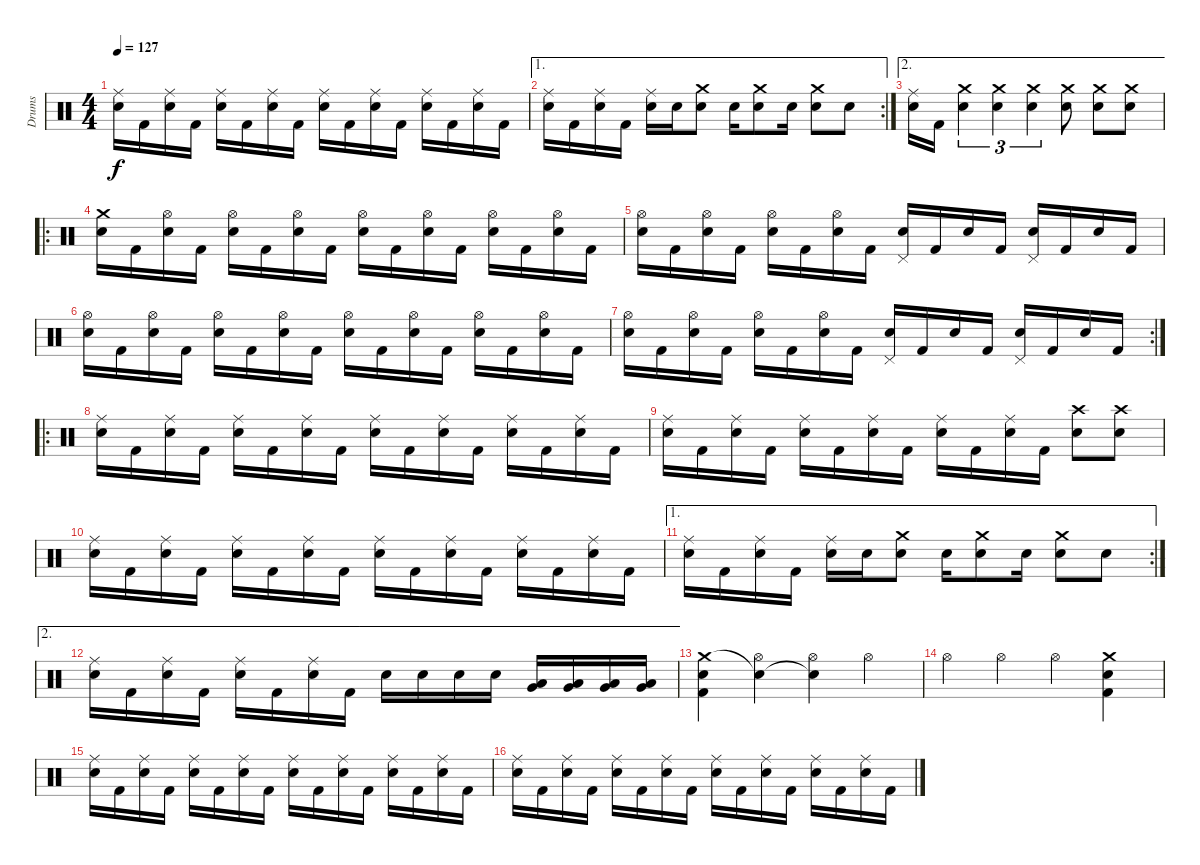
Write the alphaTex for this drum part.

\track ("Drums" "Drums") {instrument percussion}
\staff {score}
\articulation defaults
\ts (4 4)
\tempo 127
\clef neutral
\ks c
("Ride (middle)" "Snare (hit) 2").16{dy f} "Kick (hit) 2".16 ("Ride (middle)" "Snare (hit) 2").16 "Kick (hit) 2".16 ("Ride (middle)" "Snare (hit) 2").16 "Kick (hit) 2".16 ("Ride (middle)" "Snare (hit) 2").16 "Kick (hit) 2".16 ("Ride (middle)" "Snare (hit) 2").16 "Kick (hit) 2".16 ("Ride (middle)" "Snare (hit) 2").16 "Kick (hit) 2".16 ("Ride (middle)" "Snare (hit) 2").16 "Kick (hit) 2".16 ("Ride (middle)" "Snare (hit) 2").16 "Kick (hit) 2".16 |
\ae 1
\rc 2
("Ride (middle)" "Snare (hit) 2").16 "Kick (hit) 2".16 ("Ride (middle)" "Snare (hit) 2").16 "Kick (hit) 2".16 ("Ride (middle)" "Snare (hit) 2").16 "Snare (hit) 2".16 ("Crash medium (hit)" "Snare (hit) 2").8 "Snare (hit) 2".16 ("Crash medium (hit)" "Snare (hit) 2").8 "Snare (hit) 2".16 ("Crash medium (hit)" "Snare (hit) 2").8 "Snare (hit) 2".8 |
\ae 2
("Ride (middle)" "Snare (hit) 2").16 "Kick (hit) 2".16 ("Crash medium (hit)" "Snare (hit) 2").4{tu (3 2)} ("Crash medium (hit)" "Snare (hit) 2").4{tu (3 2)} ("Crash medium (hit)" "Snare (hit) 2").4{tu (3 2)} ("Crash medium (hit)" "Snare (hit) 2").8 ("Crash medium (hit)" "Snare (hit) 2").8 ("Crash medium (hit)" "Snare (hit) 2").8 |
\ro
("Crash medium (hit)" "Snare (hit) 2").16 "Kick (hit) 2".16 ("Hi-Hat (open)" "Snare (hit) 2").16 "Kick (hit) 2".16 ("Hi-Hat (open)" "Snare (hit) 2").16 "Kick (hit) 2".16 ("Hi-Hat (open)" "Snare (hit) 2").16 "Kick (hit) 2".16 ("Hi-Hat (open)" "Snare (hit) 2").16 "Kick (hit) 2".16 ("Hi-Hat (open)" "Snare (hit) 2").16 "Kick (hit) 2".16 ("Hi-Hat (open)" "Snare (hit) 2").16 "Kick (hit) 2".16 ("Hi-Hat (open)" "Snare (hit) 2").16 "Kick (hit) 2".16 |
("Hi-Hat (open)" "Snare (hit) 2").16 "Kick (hit) 2".16 ("Hi-Hat (open)" "Snare (hit) 2").16 "Kick (hit) 2".16 ("Hi-Hat (open)" "Snare (hit) 2").16 "Kick (hit) 2".16 ("Hi-Hat (open)" "Snare (hit) 2").16 "Kick (hit) 2".16 ("Pedal Hi-Hat (hit)" "Snare (hit) 2").16 "Kick (hit) 2".16 "Snare (hit) 2".16 "Kick (hit) 2".16 ("Pedal Hi-Hat (hit)" "Snare (hit) 2").16 "Kick (hit) 2".16 "Snare (hit) 2".16 "Kick (hit) 2".16 |
("Hi-Hat (open)" "Snare (hit) 2").16 "Kick (hit) 2".16 ("Hi-Hat (open)" "Snare (hit) 2").16 "Kick (hit) 2".16 ("Hi-Hat (open)" "Snare (hit) 2").16 "Kick (hit) 2".16 ("Hi-Hat (open)" "Snare (hit) 2").16 "Kick (hit) 2".16 ("Hi-Hat (open)" "Snare (hit) 2").16 "Kick (hit) 2".16 ("Hi-Hat (open)" "Snare (hit) 2").16 "Kick (hit) 2".16 ("Hi-Hat (open)" "Snare (hit) 2").16 "Kick (hit) 2".16 ("Hi-Hat (open)" "Snare (hit) 2").16 "Kick (hit) 2".16 |
\rc 2
("Hi-Hat (open)" "Snare (hit) 2").16 "Kick (hit) 2".16 ("Hi-Hat (open)" "Snare (hit) 2").16 "Kick (hit) 2".16 ("Hi-Hat (open)" "Snare (hit) 2").16 "Kick (hit) 2".16 ("Hi-Hat (open)" "Snare (hit) 2").16 "Kick (hit) 2".16 ("Pedal Hi-Hat (hit)" "Snare (hit) 2").16 "Kick (hit) 2".16 "Snare (hit) 2".16 "Kick (hit) 2".16 ("Pedal Hi-Hat (hit)" "Snare (hit) 2").16 "Kick (hit) 2".16 "Snare (hit) 2".16 "Kick (hit) 2".16 |
\ro
("Ride (middle)" "Snare (hit) 2").16 "Kick (hit) 2".16 ("Ride (middle)" "Snare (hit) 2").16 "Kick (hit) 2".16 ("Ride (middle)" "Snare (hit) 2").16 "Kick (hit) 2".16 ("Ride (middle)" "Snare (hit) 2").16 "Kick (hit) 2".16 ("Ride (middle)" "Snare (hit) 2").16 "Kick (hit) 2".16 ("Ride (middle)" "Snare (hit) 2").16 "Kick (hit) 2".16 ("Ride (middle)" "Snare (hit) 2").16 "Kick (hit) 2".16 ("Ride (middle)" "Snare (hit) 2").16 "Kick (hit) 2".16 |
("Ride (middle)" "Snare (hit) 2").16 "Kick (hit) 2".16 ("Ride (middle)" "Snare (hit) 2").16 "Kick (hit) 2".16 ("Ride (middle)" "Snare (hit) 2").16 "Kick (hit) 2".16 ("Ride (middle)" "Snare (hit) 2").16 "Kick (hit) 2".16 ("Ride (middle)" "Snare (hit) 2").16 "Kick (hit) 2".16 ("Ride (middle)" "Snare (hit) 2").16 "Kick (hit) 2".16 ("Crash high (hit)" "Snare (hit) 2").8 ("Crash high (hit)" "Snare (hit) 2").8 |
("Ride (middle)" "Snare (hit) 2").16 "Kick (hit) 2".16 ("Ride (middle)" "Snare (hit) 2").16 "Kick (hit) 2".16 ("Ride (middle)" "Snare (hit) 2").16 "Kick (hit) 2".16 ("Ride (middle)" "Snare (hit) 2").16 "Kick (hit) 2".16 ("Ride (middle)" "Snare (hit) 2").16 "Kick (hit) 2".16 ("Ride (middle)" "Snare (hit) 2").16 "Kick (hit) 2".16 ("Ride (middle)" "Snare (hit) 2").16 "Kick (hit) 2".16 ("Ride (middle)" "Snare (hit) 2").16 "Kick (hit) 2".16 |
\ae 1
\rc 2
("Ride (middle)" "Snare (hit) 2").16 "Kick (hit) 2".16 ("Ride (middle)" "Snare (hit) 2").16 "Kick (hit) 2".16 ("Ride (middle)" "Snare (hit) 2").16 "Snare (hit) 2".16 ("Crash medium (hit)" "Snare (hit) 2").8 "Snare (hit) 2".16 ("Crash medium (hit)" "Snare (hit) 2").8 "Snare (hit) 2".16 ("Crash medium (hit)" "Snare (hit) 2").8 "Snare (hit) 2".8 |
\ae 2
("Ride (middle)" "Snare (hit) 2").16 "Kick (hit) 2".16 ("Ride (middle)" "Snare (hit) 2").16 "Kick (hit) 2".16 ("Ride (middle)" "Snare (hit) 2").16 "Kick (hit) 2".16 ("Ride (middle)" "Snare (hit) 2").16 "Kick (hit) 2".16 "Snare (hit) 2".16 "Snare (hit) 2".16 "Snare (hit) 2".16 "Snare (hit) 2".16 ("Very Low Tom (hit)" "Low Floor Tom (hit)").16 ("Very Low Tom (hit)" "Low Floor Tom (hit)").16 ("Very Low Tom (hit)" "Low Floor Tom (hit)").16 ("Very Low Tom (hit)" "Low Floor Tom (hit)").16 |
("Crash medium (hit)" "Snare (hit) 2" "Kick (hit) 2").4 ("Snare (hit)"{t} "Hi-Hat (open)").4 ("Snare (hit)"{t} "Hi-Hat (open)").4 "Hi-Hat (open)".4 |
"Hi-Hat (open)".4 "Hi-Hat (open)".4 "Hi-Hat (open)".4 ("Crash medium (hit)" "Kick (hit) 2" "Snare (hit) 2").4 |
("Ride (middle)" "Snare (hit) 2").16 "Kick (hit) 2".16 ("Ride (middle)" "Snare (hit) 2").16 "Kick (hit) 2".16 ("Ride (middle)" "Snare (hit) 2").16 "Kick (hit) 2".16 ("Ride (middle)" "Snare (hit) 2").16 "Kick (hit) 2".16 ("Ride (middle)" "Snare (hit) 2").16 "Kick (hit) 2".16 ("Ride (middle)" "Snare (hit) 2").16 "Kick (hit) 2".16 ("Ride (middle)" "Snare (hit) 2").16 "Kick (hit) 2".16 ("Ride (middle)" "Snare (hit) 2").16 "Kick (hit) 2".16 |
("Ride (middle)" "Snare (hit) 2").16 "Kick (hit) 2".16 ("Ride (middle)" "Snare (hit) 2").16 "Kick (hit) 2".16 ("Ride (middle)" "Snare (hit) 2").16 "Kick (hit) 2".16 ("Ride (middle)" "Snare (hit) 2").16 "Kick (hit) 2".16 ("Ride (middle)" "Snare (hit) 2").16 "Kick (hit) 2".16 ("Ride (middle)" "Snare (hit) 2").16 "Kick (hit) 2".16 ("Ride (middle)" "Snare (hit) 2").16 "Kick (hit) 2".16 ("Ride (middle)" "Snare (hit) 2").16 "Kick (hit) 2".16
